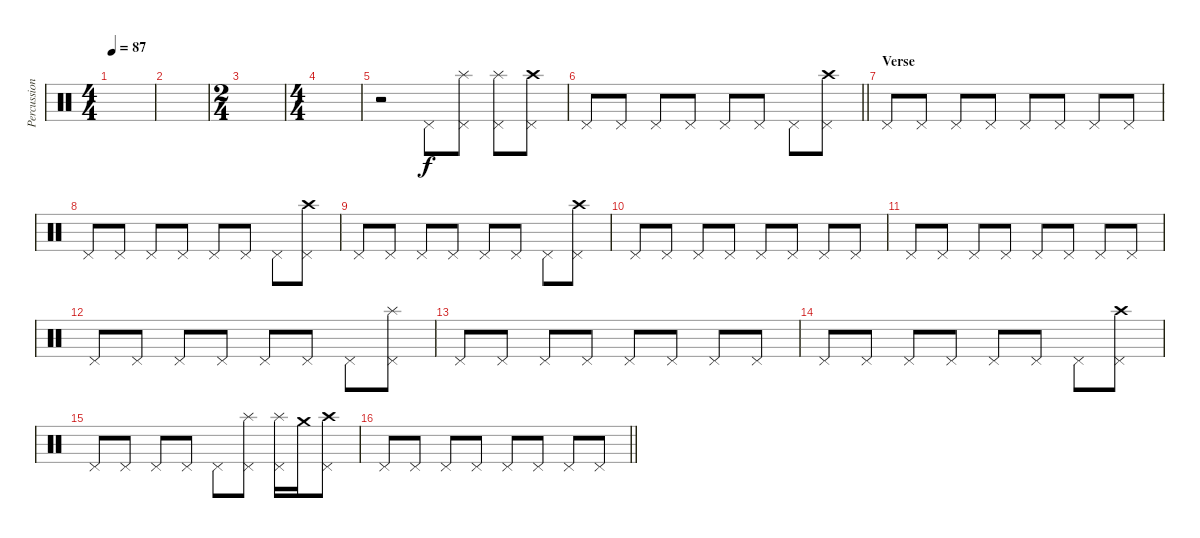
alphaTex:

\track ("Percussion" "Percussion") {instrument percussion}
\staff {score}
\articulation defaults
\ts (4 4)
\tempo 87
\clef neutral
\ks c
|
|
\ts (2 4)
|
\ts (4 4)
|
r.2 "Pedal Hi-Hat (hit)".8 ("Splash (hit)" "Pedal Hi-Hat (hit)").8 ("Splash (hit)" "Pedal Hi-Hat (hit)").8 ("Crash high (hit)" "Pedal Hi-Hat (hit)").8 |
\barLineRight lightlight "Pedal Hi-Hat (hit)".8 "Pedal Hi-Hat (hit)".8 "Pedal Hi-Hat (hit)".8 "Pedal Hi-Hat (hit)".8 "Pedal Hi-Hat (hit)".8 "Pedal Hi-Hat (hit)".8 "Pedal Hi-Hat (hit)".8
("Crash high (hit)" "Pedal Hi-Hat (hit)").8 |
\section ("" "Verse")
"Pedal Hi-Hat (hit)".8 "Pedal Hi-Hat (hit)".8 "Pedal Hi-Hat (hit)".8 "Pedal Hi-Hat (hit)".8 "Pedal Hi-Hat (hit)".8 "Pedal Hi-Hat (hit)".8 "Pedal Hi-Hat (hit)".8 "Pedal Hi-Hat (hit)".8 |
"Pedal Hi-Hat (hit)".8 "Pedal Hi-Hat (hit)".8 "Pedal Hi-Hat (hit)".8 "Pedal Hi-Hat (hit)".8 "Pedal Hi-Hat (hit)".8 "Pedal Hi-Hat (hit)".8 "Pedal Hi-Hat (hit)".8 ("Crash high (hit)" "Pedal Hi-Hat (hit)").8 |
"Pedal Hi-Hat (hit)".8 "Pedal Hi-Hat (hit)".8 "Pedal Hi-Hat (hit)".8 "Pedal Hi-Hat (hit)".8 "Pedal Hi-Hat (hit)".8 "Pedal Hi-Hat (hit)".8 "Pedal Hi-Hat (hit)".8 ("Crash high (hit)" "Pedal Hi-Hat (hit)").8 |
"Pedal Hi-Hat (hit)".8 "Pedal Hi-Hat (hit)".8 "Pedal Hi-Hat (hit)".8 "Pedal Hi-Hat (hit)".8 "Pedal Hi-Hat (hit)".8 "Pedal Hi-Hat (hit)".8 "Pedal Hi-Hat (hit)".8 "Pedal Hi-Hat (hit)".8 |
"Pedal Hi-Hat (hit)".8 "Pedal Hi-Hat (hit)".8 "Pedal Hi-Hat (hit)".8 "Pedal Hi-Hat (hit)".8 "Pedal Hi-Hat (hit)".8 "Pedal Hi-Hat (hit)".8 "Pedal Hi-Hat (hit)".8 "Pedal Hi-Hat (hit)".8 |
"Pedal Hi-Hat (hit)".8 "Pedal Hi-Hat (hit)".8 "Pedal Hi-Hat (hit)".8 "Pedal Hi-Hat (hit)".8 "Pedal Hi-Hat (hit)".8 "Pedal Hi-Hat (hit)".8 "Pedal Hi-Hat (hit)".8 ("Splash (hit)" "Pedal Hi-Hat (hit)").8 |
"Pedal Hi-Hat (hit)".8 "Pedal Hi-Hat (hit)".8 "Pedal Hi-Hat (hit)".8 "Pedal Hi-Hat (hit)".8 "Pedal Hi-Hat (hit)".8 "Pedal Hi-Hat (hit)".8 "Pedal Hi-Hat (hit)".8 "Pedal Hi-Hat (hit)".8 |
"Pedal Hi-Hat (hit)".8 "Pedal Hi-Hat (hit)".8 "Pedal Hi-Hat (hit)".8 "Pedal Hi-Hat (hit)".8 "Pedal Hi-Hat (hit)".8 "Pedal Hi-Hat (hit)".8 "Pedal Hi-Hat (hit)".8 ("Crash high (hit)" "Pedal Hi-Hat (hit)").8 |
"Pedal Hi-Hat (hit)".8 "Pedal Hi-Hat (hit)".8 "Pedal Hi-Hat (hit)".8 "Pedal Hi-Hat (hit)".8 "Pedal Hi-Hat (hit)".8 ("Splash (hit)" "Pedal Hi-Hat (hit)").8 ("Splash (hit)" "Pedal Hi-Hat (hit)").16 "Crash medium (hit)".16 ("Crash high (hit)" "Pedal Hi-Hat (hit)").8 |
\barLineRight lightlight "Pedal Hi-Hat (hit)".8 "Pedal Hi-Hat (hit)".8 "Pedal Hi-Hat (hit)".8 "Pedal Hi-Hat (hit)".8 "Pedal Hi-Hat (hit)".8 "Pedal Hi-Hat (hit)".8 "Pedal Hi-Hat (hit)".8 "Pedal Hi-Hat (hit)".8
